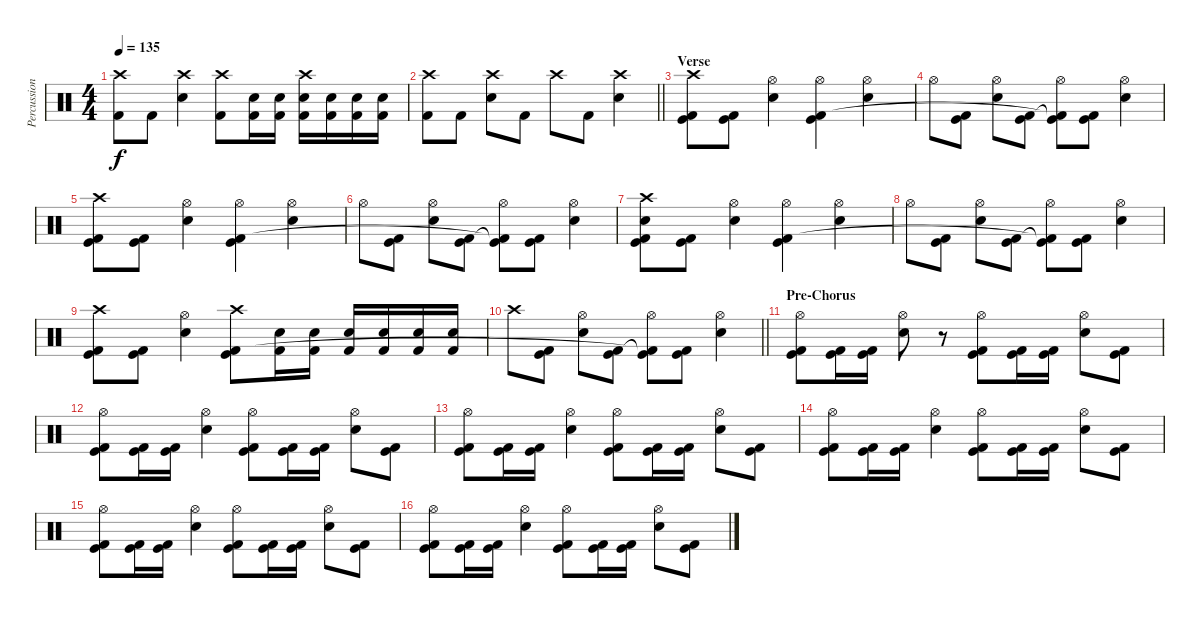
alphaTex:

\track ("Percussion" "Percussion") {instrument percussion}
\staff {score}
\articulation defaults
\ts (4 4)
\tempo 135
\clef neutral
\ks c
("Crash high (hit)" "Kick (hit) 2").8{dy f} "Kick (hit) 2".8 ("Crash high (hit)" "Electric Snare (hit)").4 ("Crash high (hit)" "Kick (hit) 2").8 ("Electric Snare (hit)" "Kick (hit) 2").16 ("Electric Snare (hit)" "Kick (hit) 2").16 ("Crash high (hit)" "Electric Snare (hit)" "Kick (hit) 2").16 ("Electric Snare (hit)" "Kick (hit) 2").16 ("Electric Snare (hit)" "Kick (hit) 2").16 ("Electric Snare (hit)" "Kick (hit) 2").16 |
\barLineRight lightlight
("Crash high (hit)" "Kick (hit) 2").8 "Kick (hit) 2".8 ("Crash high (hit)" "Electric Snare (hit)").8 "Kick (hit) 2".8 "Crash high (hit)".8 "Kick (hit) 2".8 ("Crash high (hit)" "Electric Snare (hit)").4 |
\section ("" "Verse")
("Crash high (hit)" "Kick (hit)" "Kick (hit) 2").8 ("Kick (hit)" "Kick (hit) 2").8 ("Hi-Hat (open)" "Electric Snare (hit)").4 ("Hi-Hat (open)" "Kick (hit)" "Kick (hit) 2").4 ("Hi-Hat (open)" "Electric Snare (hit)").4 |
"Hi-Hat (open)".8 ("Kick (hit)" "Kick (hit) 2").8 ("Hi-Hat (open)" "Electric Snare (hit)").8 ("Kick (hit)" "Kick (hit) 2").8 ("Hi-Hat (open)" "Kick (hit)"{t} "Kick (hit) 2"{t}).8 ("Kick (hit)" "Kick (hit) 2").8 ("Hi-Hat (open)" "Electric Snare (hit)").4 |
("Crash high (hit)" "Kick (hit)" "Kick (hit) 2").8 ("Kick (hit)" "Kick (hit) 2").8 ("Hi-Hat (open)" "Electric Snare (hit)").4 ("Hi-Hat (open)" "Kick (hit)" "Kick (hit) 2").4 ("Hi-Hat (open)" "Electric Snare (hit)").4 |
"Hi-Hat (open)".8 ("Kick (hit)" "Kick (hit) 2").8 ("Hi-Hat (open)" "Electric Snare (hit)").8 ("Kick (hit)" "Kick (hit) 2").8 ("Hi-Hat (open)" "Kick (hit)"{t} "Kick (hit) 2"{t}).8 ("Kick (hit)" "Kick (hit) 2").8 ("Hi-Hat (open)" "Electric Snare (hit)").4 |
("Crash high (hit)" "Electric Snare (hit)" "Kick (hit)" "Kick (hit) 2").8 ("Kick (hit)" "Kick (hit) 2").8 ("Hi-Hat (open)" "Electric Snare (hit)").4 ("Hi-Hat (open)" "Kick (hit)" "Kick (hit) 2").4 ("Hi-Hat (open)" "Electric Snare (hit)").4 |
"Hi-Hat (open)".8 ("Kick (hit)" "Kick (hit) 2").8 ("Hi-Hat (open)" "Electric Snare (hit)").8 ("Kick (hit)" "Kick (hit) 2").8 ("Hi-Hat (open)" "Kick (hit)"{t} "Kick (hit) 2"{t}).8 ("Kick (hit)" "Kick (hit) 2").8 ("Hi-Hat (open)" "Electric Snare (hit)").4 |
("Crash high (hit)" "Kick (hit)" "Kick (hit) 2").8 ("Kick (hit)" "Kick (hit) 2").8 ("Hi-Hat (open)" "Electric Snare (hit)").4 ("Crash high (hit)" "Kick (hit)" "Kick (hit) 2").8 ("Electric Snare (hit)" "Kick (hit) 2").16 ("Electric Snare (hit)" "Kick (hit) 2").16 ("Electric Snare (hit)" "Kick (hit) 2").16 ("Electric Snare (hit)" "Kick (hit) 2").16 ("Electric Snare (hit)" "Kick (hit) 2").16 ("Electric Snare (hit)" "Kick (hit) 2").16 |
\barLineRight lightlight "Crash high (hit)".8
("Kick (hit)" "Kick (hit) 2").8 ("Hi-Hat (open)" "Electric Snare (hit)").8 ("Kick (hit)" "Kick (hit) 2").8 ("Hi-Hat (open)" "Kick (hit)"{t} "Kick (hit) 2"{t}).8 ("Kick (hit)" "Kick (hit) 2").8 ("Hi-Hat (open)" "Electric Snare (hit)").4 |
\section ("" "Pre-Chorus")
("Hi-Hat (open)" "Kick (hit)" "Kick (hit) 2").8 ("Kick (hit)" "Kick (hit) 2").16 ("Kick (hit)" "Kick (hit) 2").16 ("Hi-Hat (open)" "Electric Snare (hit)").8 r.8 ("Hi-Hat (open)" "Kick (hit)" "Kick (hit) 2").8 ("Kick (hit)" "Kick (hit) 2").16 ("Kick (hit)" "Kick (hit) 2").16 ("Hi-Hat (open)" "Electric Snare (hit)").8 ("Kick (hit)" "Kick (hit) 2").8 |
("Hi-Hat (open)" "Kick (hit)" "Kick (hit) 2").8 ("Kick (hit)" "Kick (hit) 2").16 ("Kick (hit)" "Kick (hit) 2").16 ("Hi-Hat (open)" "Electric Snare (hit)").4 ("Hi-Hat (open)" "Kick (hit)" "Kick (hit) 2").8 ("Kick (hit)" "Kick (hit) 2").16 ("Kick (hit)" "Kick (hit) 2").16 ("Hi-Hat (open)" "Electric Snare (hit)").8 ("Kick (hit)" "Kick (hit) 2").8 |
("Hi-Hat (open)" "Kick (hit)" "Kick (hit) 2").8 ("Kick (hit)" "Kick (hit) 2").16 ("Kick (hit)" "Kick (hit) 2").16 ("Hi-Hat (open)" "Electric Snare (hit)").4 ("Hi-Hat (open)" "Kick (hit)" "Kick (hit) 2").8 ("Kick (hit)" "Kick (hit) 2").16 ("Kick (hit)" "Kick (hit) 2").16 ("Hi-Hat (open)" "Electric Snare (hit)").8 ("Kick (hit)" "Kick (hit) 2").8 |
("Hi-Hat (open)" "Kick (hit)" "Kick (hit) 2").8 ("Kick (hit)" "Kick (hit) 2").16 ("Kick (hit)" "Kick (hit) 2").16 ("Hi-Hat (open)" "Electric Snare (hit)").4 ("Hi-Hat (open)" "Kick (hit)" "Kick (hit) 2").8 ("Kick (hit)" "Kick (hit) 2").16 ("Kick (hit)" "Kick (hit) 2").16 ("Hi-Hat (open)" "Electric Snare (hit)").8 ("Kick (hit)" "Kick (hit) 2").8 |
("Hi-Hat (open)" "Kick (hit)" "Kick (hit) 2").8 ("Kick (hit)" "Kick (hit) 2").16 ("Kick (hit)" "Kick (hit) 2").16 ("Hi-Hat (open)" "Electric Snare (hit)").4 ("Hi-Hat (open)" "Kick (hit)" "Kick (hit) 2").8 ("Kick (hit)" "Kick (hit) 2").16 ("Kick (hit)" "Kick (hit) 2").16 ("Hi-Hat (open)" "Electric Snare (hit)").8 ("Kick (hit)" "Kick (hit) 2").8 |
("Hi-Hat (open)" "Kick (hit)" "Kick (hit) 2").8 ("Kick (hit)" "Kick (hit) 2").16 ("Kick (hit)" "Kick (hit) 2").16 ("Hi-Hat (open)" "Electric Snare (hit)").4 ("Hi-Hat (open)" "Kick (hit)" "Kick (hit) 2").8 ("Kick (hit)" "Kick (hit) 2").16 ("Kick (hit)" "Kick (hit) 2").16 ("Hi-Hat (open)" "Electric Snare (hit)").8 ("Kick (hit)" "Kick (hit) 2").8
